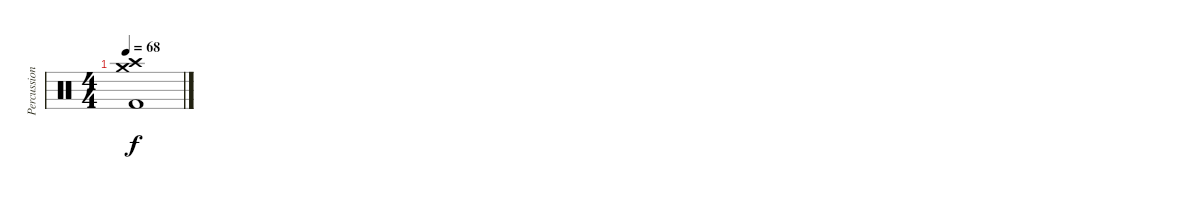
\track ("Percussion" "Percussion") {instrument percussion}
\staff {score}
\articulation defaults
\ts (4 4)
\tempo 68
\clef neutral
\ks c
("Crash high (hit)" "Crash medium (hit)" "Kick (hit) 2").1{dy f}
